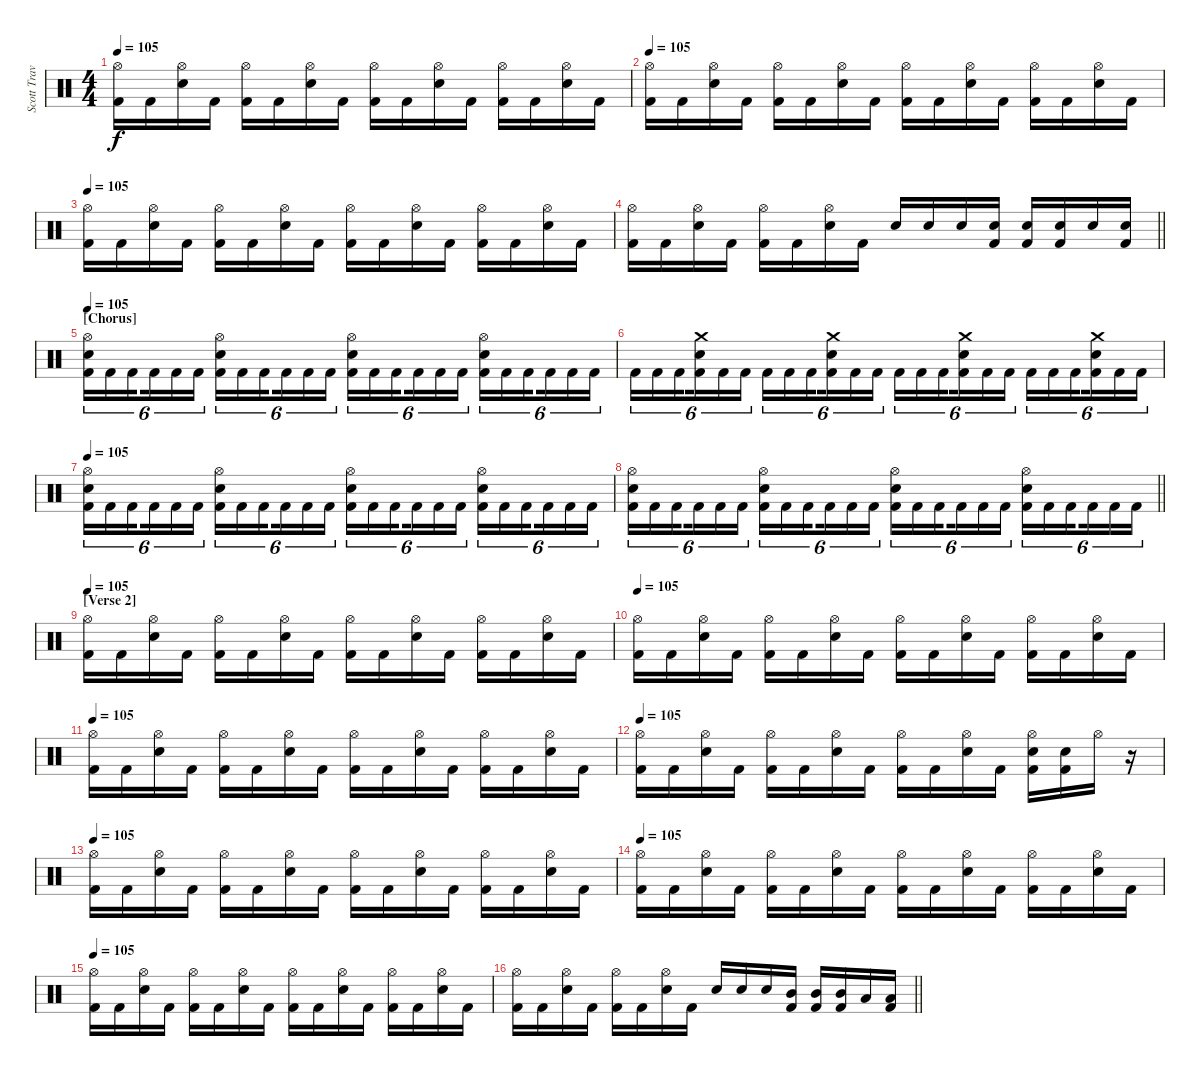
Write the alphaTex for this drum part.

\track ("Scott Travis" "Scott Trav") {instrument percussion}
\staff {score}
\articulation defaults
\ts (4 4)
\tempo 105
\clef neutral
\ks c
("Hi-Hat (open)" "Kick (hit) 2").16{dy f} "Kick (hit) 2".16 ("Hi-Hat (open)" "Snare (hit) 2").16 "Kick (hit) 2".16 ("Hi-Hat (open)" "Kick (hit) 2").16 "Kick (hit) 2".16 ("Hi-Hat (open)" "Snare (hit) 2").16 "Kick (hit) 2".16 ("Hi-Hat (open)" "Kick (hit) 2").16 "Kick (hit) 2".16 ("Hi-Hat (open)" "Snare (hit) 2").16 "Kick (hit) 2".16 ("Hi-Hat (open)" "Kick (hit) 2").16 "Kick (hit) 2".16 ("Hi-Hat (open)" "Snare (hit) 2").16 "Kick (hit) 2".16 |
\tempo 105
("Hi-Hat (open)" "Kick (hit) 2").16 "Kick (hit) 2".16 ("Hi-Hat (open)" "Snare (hit) 2").16 "Kick (hit) 2".16 ("Hi-Hat (open)" "Kick (hit) 2").16 "Kick (hit) 2".16 ("Hi-Hat (open)" "Snare (hit) 2").16 "Kick (hit) 2".16 ("Hi-Hat (open)" "Kick (hit) 2").16 "Kick (hit) 2".16 ("Hi-Hat (open)" "Snare (hit) 2").16 "Kick (hit) 2".16 ("Hi-Hat (open)" "Kick (hit) 2").16 "Kick (hit) 2".16 ("Hi-Hat (open)" "Snare (hit) 2").16 "Kick (hit) 2".16 |
\tempo 105
("Hi-Hat (open)" "Kick (hit) 2").16 "Kick (hit) 2".16 ("Hi-Hat (open)" "Snare (hit) 2").16 "Kick (hit) 2".16 ("Hi-Hat (open)" "Kick (hit) 2").16 "Kick (hit) 2".16 ("Hi-Hat (open)" "Snare (hit) 2").16 "Kick (hit) 2".16 ("Hi-Hat (open)" "Kick (hit) 2").16 "Kick (hit) 2".16 ("Hi-Hat (open)" "Snare (hit) 2").16 "Kick (hit) 2".16 ("Hi-Hat (open)" "Kick (hit) 2").16 "Kick (hit) 2".16 ("Hi-Hat (open)" "Snare (hit) 2").16 "Kick (hit) 2".16 |
\barLineRight lightlight
("Hi-Hat (open)" "Kick (hit) 2").16 "Kick (hit) 2".16 ("Hi-Hat (open)" "Snare (hit) 2").16 "Kick (hit) 2".16 ("Hi-Hat (open)" "Kick (hit) 2").16 "Kick (hit) 2".16 ("Hi-Hat (open)" "Snare (hit) 2").16 "Kick (hit) 2".16 "Snare (hit) 2".16 "Snare (hit) 2".16 "Snare (hit) 2".16 ("Snare (hit) 2" "Kick (hit) 2").16 ("Snare (hit) 2" "Kick (hit) 2").16 ("Snare (hit) 2" "Kick (hit) 2").16 "Snare (hit) 2".16 ("Snare (hit) 2" "Kick (hit) 2").16 |
\section ("" "[Chorus]")
\tempo 105
("Hi-Hat (open)" "Snare (hit) 2" "Kick (hit) 2").16{tu (6 4)} "Kick (hit) 2".16{tu (6 4)} "Kick (hit) 2".16{tu (6 4) beam splitsecondary} "Kick (hit) 2".16{tu (6 4)} "Kick (hit) 2".16{tu (6 4)} "Kick (hit) 2".16{tu (6 4)} ("Hi-Hat (open)" "Snare (hit) 2" "Kick (hit) 2").16{tu (6 4)} "Kick (hit) 2".16{tu (6 4)} "Kick (hit) 2".16{tu (6 4) beam splitsecondary} "Kick (hit) 2".16{tu (6 4)} "Kick (hit) 2".16{tu (6 4)} "Kick (hit) 2".16{tu (6 4)} ("Hi-Hat (open)" "Snare (hit) 2" "Kick (hit) 2").16{tu (6 4)} "Kick (hit) 2".16{tu (6 4)} "Kick (hit) 2".16{tu (6 4) beam splitsecondary} "Kick (hit) 2".16{tu (6 4)} "Kick (hit) 2".16{tu (6 4)} "Kick (hit) 2".16{tu (6 4)} ("Hi-Hat (open)" "Snare (hit) 2" "Kick (hit) 2").16{tu (6 4)} "Kick (hit) 2".16{tu (6 4)} "Kick (hit) 2".16{tu (6 4) beam splitsecondary} "Kick (hit) 2".16{tu (6 4)} "Kick (hit) 2".16{tu (6 4)} "Kick (hit) 2".16{tu (6 4)} |
"Kick (hit) 2".16{tu (6 4)} "Kick (hit) 2".16{tu (6 4)} "Kick (hit) 2".16{tu (6 4) beam splitsecondary} ("Crash medium (hit)" "Snare (hit) 2" "Kick (hit) 2").16{tu (6 4)} "Kick (hit) 2".16{tu (6 4)} "Kick (hit) 2".16{tu (6 4)} "Kick (hit) 2".16{tu (6 4)} "Kick (hit) 2".16{tu (6 4)} "Kick (hit) 2".16{tu (6 4) beam splitsecondary} ("Crash medium (hit)" "Snare (hit) 2" "Kick (hit) 2").16{tu (6 4)} "Kick (hit) 2".16{tu (6 4)} "Kick (hit) 2".16{tu (6 4)} "Kick (hit) 2".16{tu (6 4)} "Kick (hit) 2".16{tu (6 4)} "Kick (hit) 2".16{tu (6 4) beam splitsecondary} ("Crash medium (hit)" "Snare (hit) 2" "Kick (hit) 2").16{tu (6 4)} "Kick (hit) 2".16{tu (6 4)} "Kick (hit) 2".16{tu (6 4)} "Kick (hit) 2".16{tu (6 4)} "Kick (hit) 2".16{tu (6 4)} "Kick (hit) 2".16{tu (6 4) beam splitsecondary} ("Snare (hit) 2" "Crash medium (hit)" "Kick (hit) 2").16{tu (6 4)} "Kick (hit) 2".16{tu (6 4)} "Kick (hit) 2".16{tu (6 4)} |
\tempo 105
("Hi-Hat (open)" "Snare (hit) 2" "Kick (hit) 2").16{tu (6 4)} "Kick (hit) 2".16{tu (6 4)} "Kick (hit) 2".16{tu (6 4) beam splitsecondary} "Kick (hit) 2".16{tu (6 4)} "Kick (hit) 2".16{tu (6 4)} "Kick (hit) 2".16{tu (6 4)} ("Hi-Hat (open)" "Snare (hit) 2" "Kick (hit) 2").16{tu (6 4)} "Kick (hit) 2".16{tu (6 4)} "Kick (hit) 2".16{tu (6 4) beam splitsecondary} "Kick (hit) 2".16{tu (6 4)} "Kick (hit) 2".16{tu (6 4)} "Kick (hit) 2".16{tu (6 4)} ("Hi-Hat (open)" "Snare (hit) 2" "Kick (hit) 2").16{tu (6 4)} "Kick (hit) 2".16{tu (6 4)} "Kick (hit) 2".16{tu (6 4) beam splitsecondary} "Kick (hit) 2".16{tu (6 4)} "Kick (hit) 2".16{tu (6 4)} "Kick (hit) 2".16{tu (6 4)} ("Hi-Hat (open)" "Snare (hit) 2" "Kick (hit) 2").16{tu (6 4)} "Kick (hit) 2".16{tu (6 4)} "Kick (hit) 2".16{tu (6 4) beam splitsecondary} "Kick (hit) 2".16{tu (6 4)} "Kick (hit) 2".16{tu (6 4)} "Kick (hit) 2".16{tu (6 4)} |
\barLineRight lightlight
("Hi-Hat (open)" "Snare (hit) 2" "Kick (hit) 2").16{tu (6 4)} "Kick (hit) 2".16{tu (6 4)} "Kick (hit) 2".16{tu (6 4) beam splitsecondary} "Kick (hit) 2".16{tu (6 4)} "Kick (hit) 2".16{tu (6 4)} "Kick (hit) 2".16{tu (6 4)} ("Hi-Hat (open)" "Snare (hit) 2" "Kick (hit) 2").16{tu (6 4)} "Kick (hit) 2".16{tu (6 4)} "Kick (hit) 2".16{tu (6 4) beam splitsecondary} "Kick (hit) 2".16{tu (6 4)} "Kick (hit) 2".16{tu (6 4)} "Kick (hit) 2".16{tu (6 4)} ("Hi-Hat (open)" "Snare (hit) 2" "Kick (hit) 2").16{tu (6 4)} "Kick (hit) 2".16{tu (6 4)} "Kick (hit) 2".16{tu (6 4) beam splitsecondary} "Kick (hit) 2".16{tu (6 4)} "Kick (hit) 2".16{tu (6 4)} "Kick (hit) 2".16{tu (6 4)} ("Hi-Hat (open)" "Snare (hit) 2" "Kick (hit) 2").16{tu (6 4)} "Kick (hit) 2".16{tu (6 4)} "Kick (hit) 2".16{tu (6 4) beam splitsecondary} "Kick (hit) 2".16{tu (6 4)} "Kick (hit) 2".16{tu (6 4)} "Kick (hit) 2".16{tu (6 4)} |
\section ("" "[Verse 2]")
\tempo 105
("Hi-Hat (open)" "Kick (hit) 2").16 "Kick (hit) 2".16 ("Hi-Hat (open)" "Snare (hit) 2").16 "Kick (hit) 2".16 ("Hi-Hat (open)" "Kick (hit) 2").16 "Kick (hit) 2".16 ("Hi-Hat (open)" "Snare (hit) 2").16 "Kick (hit) 2".16 ("Hi-Hat (open)" "Kick (hit) 2").16 "Kick (hit) 2".16 ("Hi-Hat (open)" "Snare (hit) 2").16 "Kick (hit) 2".16 ("Hi-Hat (open)" "Kick (hit) 2").16 "Kick (hit) 2".16 ("Hi-Hat (open)" "Snare (hit) 2").16 "Kick (hit) 2".16 |
\tempo 105
("Hi-Hat (open)" "Kick (hit) 2").16 "Kick (hit) 2".16 ("Hi-Hat (open)" "Snare (hit) 2").16 "Kick (hit) 2".16 ("Hi-Hat (open)" "Kick (hit) 2").16 "Kick (hit) 2".16 ("Hi-Hat (open)" "Snare (hit) 2").16 "Kick (hit) 2".16 ("Hi-Hat (open)" "Kick (hit) 2").16 "Kick (hit) 2".16 ("Hi-Hat (open)" "Snare (hit) 2").16 "Kick (hit) 2".16 ("Hi-Hat (open)" "Kick (hit) 2").16 "Kick (hit) 2".16 ("Hi-Hat (open)" "Snare (hit) 2").16 "Kick (hit) 2".16 |
\tempo 105
("Hi-Hat (open)" "Kick (hit) 2").16 "Kick (hit) 2".16 ("Hi-Hat (open)" "Snare (hit) 2").16 "Kick (hit) 2".16 ("Hi-Hat (open)" "Kick (hit) 2").16 "Kick (hit) 2".16 ("Hi-Hat (open)" "Snare (hit) 2").16 "Kick (hit) 2".16 ("Hi-Hat (open)" "Kick (hit) 2").16 "Kick (hit) 2".16 ("Hi-Hat (open)" "Snare (hit) 2").16 "Kick (hit) 2".16 ("Hi-Hat (open)" "Kick (hit) 2").16 "Kick (hit) 2".16 ("Hi-Hat (open)" "Snare (hit) 2").16 "Kick (hit) 2".16 |
\tempo 105
("Hi-Hat (open)" "Kick (hit) 2").16 "Kick (hit) 2".16 ("Hi-Hat (open)" "Snare (hit) 2").16 "Kick (hit) 2".16 ("Hi-Hat (open)" "Kick (hit) 2").16 "Kick (hit) 2".16 ("Hi-Hat (open)" "Snare (hit) 2").16 "Kick (hit) 2".16 ("Hi-Hat (open)" "Kick (hit) 2").16 "Kick (hit) 2".16 ("Hi-Hat (open)" "Snare (hit) 2").16 "Kick (hit) 2".16 ("Hi-Hat (open)" "Snare (hit) 2" "Kick (hit) 2").16 ("Snare (hit) 2" "Kick (hit) 2").16 "Hi-Hat (open)".16 r.16 |
\tempo 105
("Hi-Hat (open)" "Kick (hit) 2").16 "Kick (hit) 2".16 ("Hi-Hat (open)" "Snare (hit) 2").16 "Kick (hit) 2".16 ("Hi-Hat (open)" "Kick (hit) 2").16 "Kick (hit) 2".16 ("Hi-Hat (open)" "Snare (hit) 2").16 "Kick (hit) 2".16 ("Hi-Hat (open)" "Kick (hit) 2").16 "Kick (hit) 2".16 ("Hi-Hat (open)" "Snare (hit) 2").16 "Kick (hit) 2".16 ("Hi-Hat (open)" "Kick (hit) 2").16 "Kick (hit) 2".16 ("Hi-Hat (open)" "Snare (hit) 2").16 "Kick (hit) 2".16 |
\tempo 105
("Hi-Hat (open)" "Kick (hit) 2").16 "Kick (hit) 2".16 ("Hi-Hat (open)" "Snare (hit) 2").16 "Kick (hit) 2".16 ("Hi-Hat (open)" "Kick (hit) 2").16 "Kick (hit) 2".16 ("Hi-Hat (open)" "Snare (hit) 2").16 "Kick (hit) 2".16 ("Hi-Hat (open)" "Kick (hit) 2").16 "Kick (hit) 2".16 ("Hi-Hat (open)" "Snare (hit) 2").16 "Kick (hit) 2".16 ("Hi-Hat (open)" "Kick (hit) 2").16 "Kick (hit) 2".16 ("Hi-Hat (open)" "Snare (hit) 2").16 "Kick (hit) 2".16 |
\tempo 105
("Hi-Hat (open)" "Kick (hit) 2").16 "Kick (hit) 2".16 ("Hi-Hat (open)" "Snare (hit) 2").16 "Kick (hit) 2".16 ("Hi-Hat (open)" "Kick (hit) 2").16 "Kick (hit) 2".16 ("Hi-Hat (open)" "Snare (hit) 2").16 "Kick (hit) 2".16 ("Hi-Hat (open)" "Kick (hit) 2").16 "Kick (hit) 2".16 ("Hi-Hat (open)" "Snare (hit) 2").16 "Kick (hit) 2".16 ("Hi-Hat (open)" "Kick (hit) 2").16 "Kick (hit) 2".16 ("Hi-Hat (open)" "Snare (hit) 2").16 "Kick (hit) 2".16 |
\barLineRight lightlight
("Hi-Hat (open)" "Kick (hit) 2").16 "Kick (hit) 2".16 ("Hi-Hat (open)" "Snare (hit) 2").16 "Kick (hit) 2".16 ("Hi-Hat (open)" "Kick (hit) 2").16 "Kick (hit) 2".16 ("Hi-Hat (open)" "Snare (hit) 2").16 "Kick (hit) 2".16 "Snare (hit) 2".16 "Snare (hit) 2".16 "Snare (hit) 2".16 ("Mid Tom (hit)" "Kick (hit) 2").16 ("Mid Tom (hit)" "Kick (hit) 2").16 ("Mid Tom (hit)" "Kick (hit) 2").16 "Low Tom (hit)".16 ("Low Tom (hit)" "Kick (hit) 2").16
